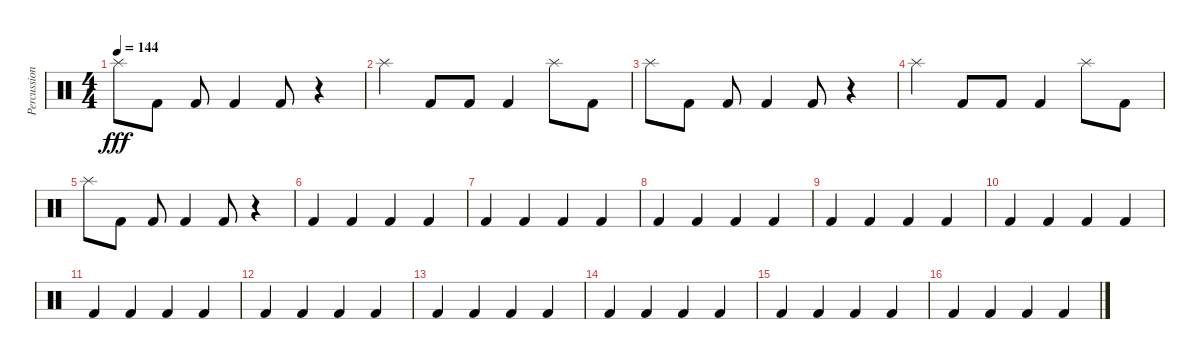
\track ("Percussion" "Percussion") {instrument percussion}
\staff {score}
\articulation defaults
\ts (4 4)
\tempo 144
\clef neutral
\ks c "Splash (hit)".8{dy fff} "Kick (hit) 2".8 "Kick (hit) 2".8 "Kick (hit) 2".4 "Kick (hit) 2".8
r.4 |
"Splash (hit)".4 "Kick (hit) 2".8 "Kick (hit) 2".8 "Kick (hit) 2".4 "Splash (hit)".8 "Kick (hit) 2".8 |
"Splash (hit)".8 "Kick (hit) 2".8 "Kick (hit) 2".8 "Kick (hit) 2".4 "Kick (hit) 2".8 r.4 |
"Splash (hit)".4 "Kick (hit) 2".8 "Kick (hit) 2".8 "Kick (hit) 2".4 "Splash (hit)".8 "Kick (hit) 2".8 |
"Splash (hit)".8 "Kick (hit) 2".8 "Kick (hit) 2".8 "Kick (hit) 2".4 "Kick (hit) 2".8 r.4 |
"Kick (hit) 2".4 "Kick (hit) 2".4 "Kick (hit) 2".4 "Kick (hit) 2".4 |
"Kick (hit) 2".4 "Kick (hit) 2".4 "Kick (hit) 2".4 "Kick (hit) 2".4 |
"Kick (hit) 2".4 "Kick (hit) 2".4 "Kick (hit) 2".4 "Kick (hit) 2".4 |
"Kick (hit) 2".4 "Kick (hit) 2".4 "Kick (hit) 2".4 "Kick (hit) 2".4 |
"Kick (hit) 2".4 "Kick (hit) 2".4 "Kick (hit) 2".4 "Kick (hit) 2".4 |
"Kick (hit) 2".4 "Kick (hit) 2".4 "Kick (hit) 2".4 "Kick (hit) 2".4 |
"Kick (hit) 2".4 "Kick (hit) 2".4 "Kick (hit) 2".4 "Kick (hit) 2".4 |
"Kick (hit) 2".4 "Kick (hit) 2".4 "Kick (hit) 2".4 "Kick (hit) 2".4 |
"Kick (hit) 2".4 "Kick (hit) 2".4 "Kick (hit) 2".4 "Kick (hit) 2".4 |
"Kick (hit) 2".4 "Kick (hit) 2".4 "Kick (hit) 2".4 "Kick (hit) 2".4 |
"Kick (hit) 2".4 "Kick (hit) 2".4 "Kick (hit) 2".4 "Kick (hit) 2".4
